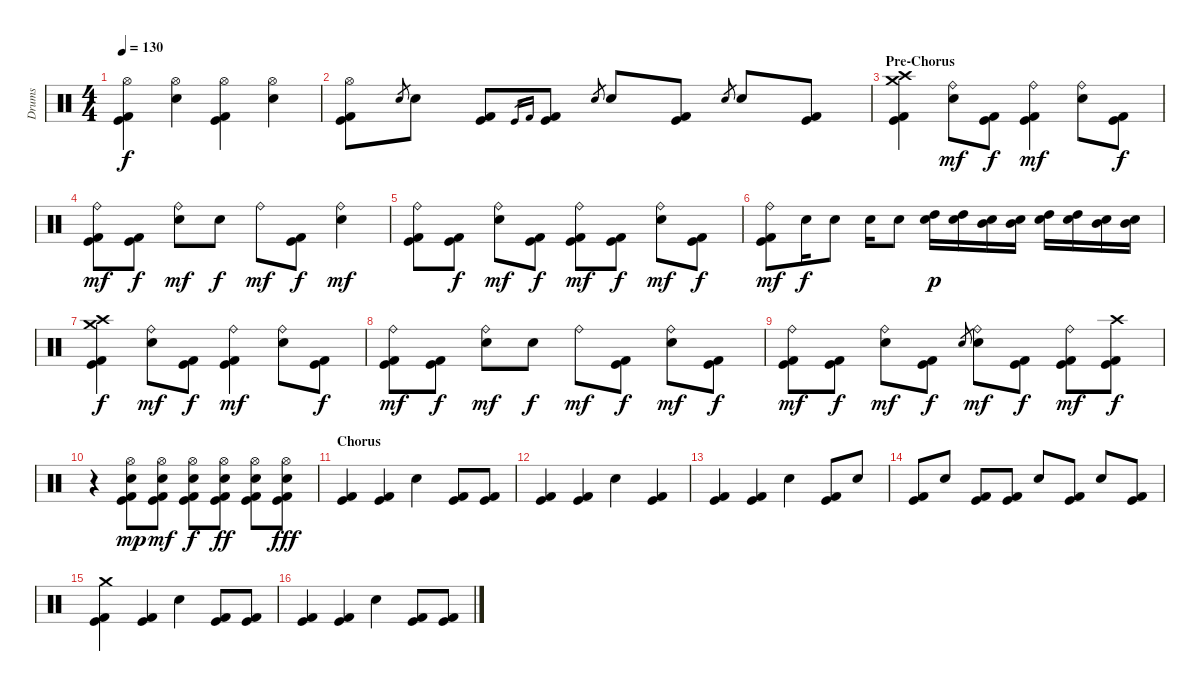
\track ("Drums" "Drums") {instrument percussion}
\staff {score}
\articulation defaults
\ts (4 4)
\tempo 130
\clef neutral
\ks c
("Hi-Hat (open)" "Kick (hit)" "Kick (hit) 2").4{dy f} ("Hi-Hat (open)" "Electric Snare (hit)").4 ("Hi-Hat (open)" "Kick (hit)" "Kick (hit) 2").4 ("Hi-Hat (open)" "Electric Snare (hit)").4 |
("Hi-Hat (open)" "Kick (hit)" "Kick (hit) 2").8 "Electric Snare (hit)".8{gr} "Electric Snare (hit)".8 ("Kick (hit)" "Kick (hit) 2").8 "Kick (hit)".16{gr} "Kick (hit) 2".16{gr} ("Kick (hit)" "Kick (hit) 2").8 "Electric Snare (hit)".8{gr} "Electric Snare (hit)".8 ("Kick (hit)" "Kick (hit) 2").8 "Electric Snare (hit)".8{gr} "Electric Snare (hit)".8 ("Kick (hit)" "Kick (hit) 2").8 |
\section ("" "Pre-Chorus")
("Crash medium (hit)" "Crash high (hit)" "Kick (hit)" "Kick (hit) 2").4 ("Ride (bell)" "Electric Snare (hit)").8{dy mf} ("Kick (hit)" "Kick (hit) 2").8{dy f} ("Ride (bell)" "Kick (hit)" "Kick (hit) 2").4{dy mf} ("Ride (bell)" "Electric Snare (hit)").8 ("Kick (hit)" "Kick (hit) 2").8{dy f} |
("Ride (bell)" "Kick (hit)" "Kick (hit) 2").8{dy mf} ("Kick (hit)" "Kick (hit) 2").8{dy f} ("Ride (bell)" "Electric Snare (hit)").8{dy mf} "Electric Snare (hit)".8{dy f} "Ride (bell)".8{dy mf} ("Kick (hit)" "Kick (hit) 2").8{dy f} ("Ride (bell)" "Electric Snare (hit)").4{dy mf} |
("Ride (bell)" "Kick (hit)" "Kick (hit) 2").8 ("Kick (hit)" "Kick (hit) 2").8{dy f} ("Ride (bell)" "Electric Snare (hit)").8{dy mf} ("Kick (hit)" "Kick (hit) 2").8{dy f} ("Ride (bell)" "Kick (hit)" "Kick (hit) 2").8{dy mf} ("Kick (hit)" "Kick (hit) 2").8{dy f} ("Ride (bell)" "Electric Snare (hit)").8{dy mf} ("Kick (hit)" "Kick (hit) 2").8{dy f} |
("Ride (bell)" "Kick (hit)" "Kick (hit) 2").8{dy mf} "Electric Snare (hit)".16{dy f} "Electric Snare (hit)".8 "Electric Snare (hit)".16 "Electric Snare (hit)".8 ("Electric Snare (hit)" "High Tom (hit)").16{dy p} ("Electric Snare (hit)" "High Tom (hit)").16 ("Electric Snare (hit)" "Mid Tom (hit)").16 ("Electric Snare (hit)" "Mid Tom (hit)").16 ("Electric Snare (hit)" "High Tom (hit)").16 ("Electric Snare (hit)" "High Tom (hit)").16 ("Electric Snare (hit)" "Mid Tom (hit)").16 ("Electric Snare (hit)" "Mid Tom (hit)").16 |
("Crash medium (hit)" "Crash high (hit)" "Kick (hit)" "Kick (hit) 2").4{dy f} ("Ride (bell)" "Electric Snare (hit)").8{dy mf} ("Kick (hit)" "Kick (hit) 2").8{dy f} ("Ride (bell)" "Kick (hit)" "Kick (hit) 2").4{dy mf} ("Ride (bell)" "Electric Snare (hit)").8 ("Kick (hit)" "Kick (hit) 2").8{dy f} |
("Ride (bell)" "Kick (hit)" "Kick (hit) 2").8{dy mf} ("Kick (hit)" "Kick (hit) 2").8{dy f} ("Ride (bell)" "Electric Snare (hit)").8{dy mf} "Electric Snare (hit)".8{dy f} "Ride (bell)".8{dy mf} ("Kick (hit)" "Kick (hit) 2").8{dy f} ("Ride (bell)" "Electric Snare (hit)").8{dy mf} ("Kick (hit)" "Kick (hit) 2").8{dy f} |
("Ride (bell)" "Kick (hit)" "Kick (hit) 2").8{dy mf} ("Kick (hit)" "Kick (hit) 2").8{dy f} ("Ride (bell)" "Electric Snare (hit)").8{dy mf} ("Kick (hit)" "Kick (hit) 2").8{dy f} "Electric Snare (hit)".8{gr} ("Ride (bell)" "Electric Snare (hit)").8{dy mf} ("Kick (hit)" "Kick (hit) 2").8{dy f} ("Ride (bell)" "Kick (hit)" "Kick (hit) 2").8{dy mf} ("Crash high (hit)" "Kick (hit)" "Kick (hit) 2").8{dy f} |
r.4 ("Hi-Hat (open)" "Electric Snare (hit)" "Kick (hit)" "Kick (hit) 2").8{dy mp} ("Hi-Hat (open)" "Electric Snare (hit)" "Kick (hit)" "Kick (hit) 2").8{dy mf} ("Hi-Hat (open)" "Electric Snare (hit)" "Kick (hit)" "Kick (hit) 2").8{dy f} ("Hi-Hat (open)" "Electric Snare (hit)" "Kick (hit)" "Kick (hit) 2").8{dy ff} ("Hi-Hat (open)" "Electric Snare (hit)" "Kick (hit)" "Kick (hit) 2").8 ("Hi-Hat (open)" "Electric Snare (hit)" "Kick (hit)" "Kick (hit) 2").8{dy fff} |
\section ("" "Chorus")
("Kick (hit)" "Kick (hit) 2").4 ("Kick (hit)" "Kick (hit) 2").4 "Electric Snare (hit)".4 ("Kick (hit)" "Kick (hit) 2").8 ("Kick (hit)" "Kick (hit) 2").8 |
("Kick (hit)" "Kick (hit) 2").4 ("Kick (hit)" "Kick (hit) 2").4 "Electric Snare (hit)".4 ("Kick (hit)" "Kick (hit) 2").4 |
("Kick (hit)" "Kick (hit) 2").4 ("Kick (hit)" "Kick (hit) 2").4 "Electric Snare (hit)".4 ("Kick (hit)" "Kick (hit) 2").8 "Electric Snare (hit)".8 |
("Kick (hit)" "Kick (hit) 2").8 "Electric Snare (hit)".8 ("Kick (hit)" "Kick (hit) 2").8 ("Kick (hit)" "Kick (hit) 2").8 "Electric Snare (hit)".8 ("Kick (hit)" "Kick (hit) 2").8 "Electric Snare (hit)".8 ("Kick (hit)" "Kick (hit) 2").8 |
("Crash medium (hit)" "Kick (hit)" "Kick (hit) 2").4 ("Kick (hit)" "Kick (hit) 2").4 "Electric Snare (hit)".4 ("Kick (hit)" "Kick (hit) 2").8 ("Kick (hit)" "Kick (hit) 2").8 |
("Kick (hit)" "Kick (hit) 2").4 ("Kick (hit)" "Kick (hit) 2").4 "Electric Snare (hit)".4 ("Kick (hit)" "Kick (hit) 2").8 ("Kick (hit)" "Kick (hit) 2").8
